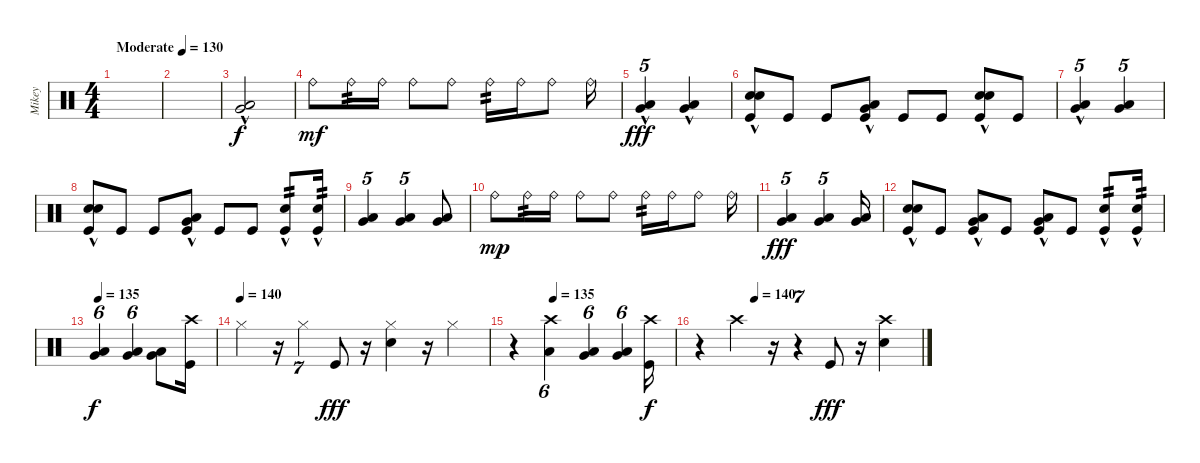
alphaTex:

\track ("Mikey" "Mikey") {instrument percussion}
\staff {score}
\articulation defaults
\ts (4 4)
\tempo (130 "Moderate")
\clef neutral
\ks c
|
|
("Very Low Tom (hit)"{hac} "Low Tom (hit)"{hac}).2 |
"Ride (bell)".8{dy mf} "Ride (bell)".16{tp 2} "Ride (bell)".16 "Ride (bell)".8 "Ride (bell)".8 "Ride (bell)".16{tp 2} "Ride (bell)".16 "Ride (bell)".8 "Ride (bell)".16 |
("Very Low Tom (hit)"{hac} "Low Tom (hit)"{hac}).4{tu (5 4) dy fff} ("Very Low Tom (hit)"{hac} "Low Tom (hit)"{hac}).4 |
("Electric Snare (hit)"{hac} "Electric Snare (hit)"{hac} "Kick (hit)").8 "Kick (hit)".8 "Kick (hit)".8 ("Very Low Tom (hit)"{hac} "Low Tom (hit)"{hac} "Kick (hit)").8 "Kick (hit)".8 "Kick (hit)".8 ("Electric Snare (hit)"{hac} "Electric Snare (hit)"{hac} "Kick (hit)").8 "Kick (hit)".8 |
("Very Low Tom (hit)"{hac} "Low Tom (hit)"{hac}).4{tu (5 4)} ("Very Low Tom (hit)" "Low Tom (hit)").4{tu (5 4)} |
("Electric Snare (hit)"{hac} "Electric Snare (hit)"{hac} "Kick (hit)").8 "Kick (hit)".8 "Kick (hit)".8 ("Very Low Tom (hit)"{hac} "Low Tom (hit)"{hac} "Kick (hit)").8 "Kick (hit)".8 "Kick (hit)".8 ("Electric Snare (hit)"{hac} "Kick (hit)").8{tp 2} ("Electric Snare (hit)"{hac} "Kick (hit)").16{tp 2} |
("Very Low Tom (hit)" "Low Tom (hit)").4{tu (5 4)} ("Very Low Tom (hit)" "Low Tom (hit)").4{tu (5 4)} ("Very Low Tom (hit)" "Low Tom (hit)").8 |
"Ride (bell)".8{dy mp} "Ride (bell)".16{tp 2} "Ride (bell)".16 "Ride (bell)".8 "Ride (bell)".8 "Ride (bell)".16{tp 2} "Ride (bell)".16 "Ride (bell)".8 "Ride (bell)".16 |
("Very Low Tom (hit)" "Low Tom (hit)").4{tu (5 4) dy fff} ("Very Low Tom (hit)" "Low Tom (hit)").4{tu (5 4)} ("Very Low Tom (hit)" "Low Tom (hit)").16 |
("Electric Snare (hit)"{hac} "Electric Snare (hit)"{hac} "Kick (hit)").8 "Kick (hit)".8 ("Low Tom (hit)"{hac} "Very Low Tom (hit)"{hac} "Kick (hit)").8 "Kick (hit)".8 ("Very Low Tom (hit)"{hac} "Low Floor Tom (hit)"{hac} "Kick (hit)").8 "Kick (hit)".8 ("Electric Snare (hit)"{hac} "Kick (hit)").8{tp 2} ("Electric Snare (hit)"{hac} "Kick (hit)").16{tp 2} |
\tempo 135
("Very Low Tom (hit)" "Low Floor Tom (hit)").4{tu (6 4) dy f} ("Very Low Tom (hit)" "Low Floor Tom (hit)").4{tu (6 4)} ("Very Low Tom (hit)" "Low Floor Tom (hit)").8 ("Crash high (hit)" "Kick (hit)").16 |
\tempo (140)
"Hi-Hat (closed)".4 r.16 "Hi-Hat (closed)".4{tu (7 4)} "Kick (hit)".8{dy fff} r.16 ("Hi-Hat (closed)" "Electric Snare (hit)").4 r.16 "Hi-Hat (closed)".4 |
\tempo (135 0.25)
r.4 ("Crash high (hit)" "Low Floor Tom (hit)").4{tu (6 4)} ("Very Low Tom (hit)" "Low Floor Tom (hit)").4{tu (6 4)} ("Very Low Tom (hit)" "Low Floor Tom (hit)").4{tu (6 4)} ("Crash high (hit)" "Kick (hit)").16{dy f} |
\tempo (140 0.25)
r.4 "Crash high (hit)".4 r.16 r.4{tu (7 4)} "Kick (hit)".8{dy fff} r.16 ("Crash high (hit)" "Electric Snare (hit)").4
